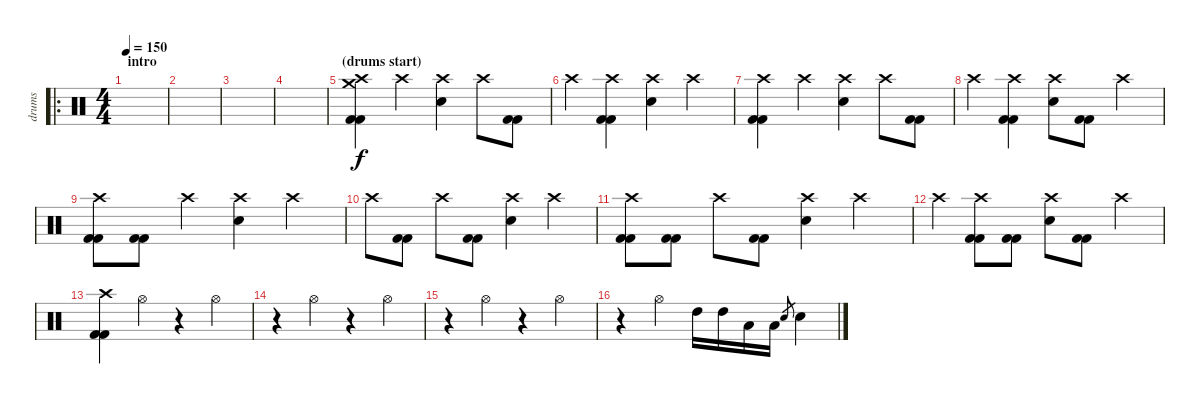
\track ("drums" "drums") {instrument percussion}
\staff {score}
\articulation defaults
\ro
\ts (4 4)
\section ("" "intro")
\tempo 150
\clef neutral
\ks c
|
|
|
|
\section ("" "(drums start)")
("Crash high (hit)" "Crash medium (hit)" "Kick (hit) 2" "Kick (hit) 2").4 "Crash high (hit)".4 ("Crash high (hit)" "Electric Snare (hit)").4 "Crash high (hit)".8 ("Kick (hit) 2" "Kick (hit) 2").8 |
"Crash high (hit)".4 ("Crash high (hit)" "Kick (hit) 2" "Kick (hit) 2").4 ("Crash high (hit)" "Electric Snare (hit)").4 "Crash high (hit)".4 |
("Crash high (hit)" "Kick (hit) 2" "Kick (hit) 2").4 "Crash high (hit)".4 ("Crash high (hit)" "Electric Snare (hit)").4 "Crash high (hit)".8 ("Kick (hit) 2" "Kick (hit) 2").8 |
"Crash high (hit)".4 ("Crash high (hit)" "Kick (hit) 2" "Kick (hit) 2").4 ("Crash high (hit)" "Electric Snare (hit)").8 ("Kick (hit) 2" "Kick (hit) 2").8 "Crash high (hit)".4 |
("Crash high (hit)" "Kick (hit) 2" "Kick (hit) 2").8 ("Kick (hit) 2" "Kick (hit) 2").8 "Crash high (hit)".4 ("Crash high (hit)" "Electric Snare (hit)").4 "Crash high (hit)".4 |
"Crash high (hit)".8 ("Kick (hit) 2" "Kick (hit) 2").8 "Crash high (hit)".8 ("Kick (hit) 2" "Kick (hit) 2").8 ("Crash high (hit)" "Electric Snare (hit)").4 "Crash high (hit)".4 |
("Crash high (hit)" "Kick (hit) 2" "Kick (hit) 2").8 ("Kick (hit) 2" "Kick (hit) 2").8 "Crash high (hit)".8 ("Kick (hit) 2" "Kick (hit) 2").8 ("Crash high (hit)" "Electric Snare (hit)").4 "Crash high (hit)".4 |
"Crash high (hit)".4 ("Crash high (hit)" "Kick (hit) 2" "Kick (hit) 2").8 ("Kick (hit) 2" "Kick (hit) 2").8 ("Crash high (hit)" "Electric Snare (hit)").8 ("Kick (hit) 2" "Kick (hit) 2").8 "Crash high (hit)".4 |
\section ("" "")
("Crash high (hit)" "Kick (hit) 2" "Kick (hit) 2").4 "Hi-Hat (open)".4 r.4 "Hi-Hat (open)".4 |
r.4 "Hi-Hat (open)".4 r.4 "Hi-Hat (open)".4 |
r.4 "Hi-Hat (open)".4 r.4 "Hi-Hat (open)".4 |
r.4 "Hi-Hat (open)".4 "High Tom (hit)".16 "High Tom (hit)".16 "Low Tom (hit)".16 "Low Tom (hit)".16 "Electric Snare (hit)".8{gr} "Electric Snare (hit)".4
